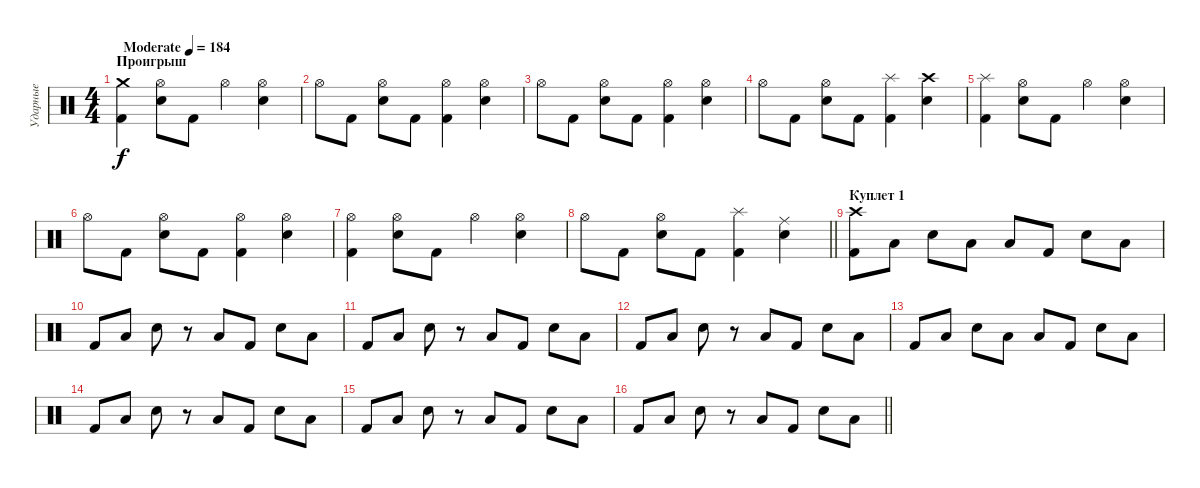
\track ("Ударные" "Ударные") {instrument percussion}
\staff {score}
\articulation defaults
\ts (4 4)
\section ("" "Проигрыш")
\tempo (184 "Moderate")
\clef neutral
\ks c
("Crash medium (hit)" "Kick (hit) 2").4{dy f} ("Hi-Hat (open)" "Snare (hit) 2").8 "Kick (hit) 2".8 "Hi-Hat (open)".4 ("Hi-Hat (open)" "Snare (hit) 2").4 |
"Hi-Hat (open)".8 "Kick (hit) 2".8 ("Hi-Hat (open)" "Snare (hit) 2").8 "Kick (hit) 2".8 ("Hi-Hat (open)" "Kick (hit) 2").4 ("Hi-Hat (open)" "Snare (hit) 2").4 |
"Hi-Hat (open)".8 "Kick (hit) 2".8 ("Hi-Hat (open)" "Snare (hit) 2").8 "Kick (hit) 2".8 ("Hi-Hat (open)" "Kick (hit) 2").4 ("Hi-Hat (open)" "Snare (hit) 2").4 |
"Hi-Hat (open)".8 "Kick (hit) 2".8 ("Hi-Hat (open)" "Snare (hit) 2").8 "Kick (hit) 2".8 ("Splash (hit)" "Kick (hit) 2").4 ("Crash high (hit)" "Snare (hit) 2").4 |
("Splash (hit)" "Kick (hit) 2").4 ("Hi-Hat (open)" "Snare (hit) 2").8 "Kick (hit) 2".8 "Hi-Hat (open)".4 ("Hi-Hat (open)" "Snare (hit) 2").4 |
"Hi-Hat (open)".8 "Kick (hit) 2".8 ("Hi-Hat (open)" "Snare (hit) 2").8 "Kick (hit) 2".8 ("Hi-Hat (open)" "Kick (hit) 2").4 ("Hi-Hat (open)" "Snare (hit) 2").4 |
("Hi-Hat (open)" "Kick (hit) 2").4 ("Hi-Hat (open)" "Snare (hit) 2").8 "Kick (hit) 2".8 "Hi-Hat (open)".4 ("Hi-Hat (open)" "Snare (hit) 2").4 |
\barLineRight lightlight "Hi-Hat (open)".8 "Kick (hit) 2".8
("Hi-Hat (open)" "Snare (hit) 2").8 "Kick (hit) 2".8 ("Splash (hit)" "Kick (hit) 2").4 ("Ride (middle)" "Snare (hit) 2").4 |
\section ("" "Куплет 1")
("Crash high (hit)" "Kick (hit) 2").8 "Low Tom (hit)".8 "Snare (hit) 2".8 "Low Floor Tom (hit)".8 "Low Tom (hit)".8 "Kick (hit) 2".8 "Snare (hit) 2".8 "Low Tom (hit)".8 |
"Kick (hit) 2".8 "Low Tom (hit)".8 "Snare (hit) 2".8 r.8 "Low Tom (hit)".8 "Kick (hit) 2".8 "Snare (hit) 2".8 "Low Tom (hit)".8 |
"Kick (hit) 2".8 "Low Tom (hit)".8 "Snare (hit) 2".8 r.8 "Low Tom (hit)".8 "Kick (hit) 2".8 "Snare (hit) 2".8 "Low Tom (hit)".8 |
"Kick (hit) 2".8 "Low Tom (hit)".8 "Snare (hit) 2".8 r.8 "Low Tom (hit)".8 "Kick (hit) 2".8 "Snare (hit) 2".8 "Low Tom (hit)".8 |
"Kick (hit) 2".8 "Low Tom (hit)".8 "Snare (hit) 2".8 "Low Floor Tom (hit)".8 "Low Tom (hit)".8 "Kick (hit) 2".8 "Snare (hit) 2".8 "Low Tom (hit)".8 |
"Kick (hit) 2".8 "Low Tom (hit)".8 "Snare (hit) 2".8 r.8 "Low Tom (hit)".8 "Kick (hit) 2".8 "Snare (hit) 2".8 "Low Tom (hit)".8 |
"Kick (hit) 2".8 "Low Tom (hit)".8 "Snare (hit) 2".8 r.8 "Low Tom (hit)".8 "Kick (hit) 2".8 "Snare (hit) 2".8 "Low Tom (hit)".8 |
\barLineRight lightlight "Kick (hit) 2".8 "Low Tom (hit)".8 "Snare (hit) 2".8
r.8 "Low Tom (hit)".8 "Kick (hit) 2".8 "Snare (hit) 2".8 "Low Tom (hit)".8
